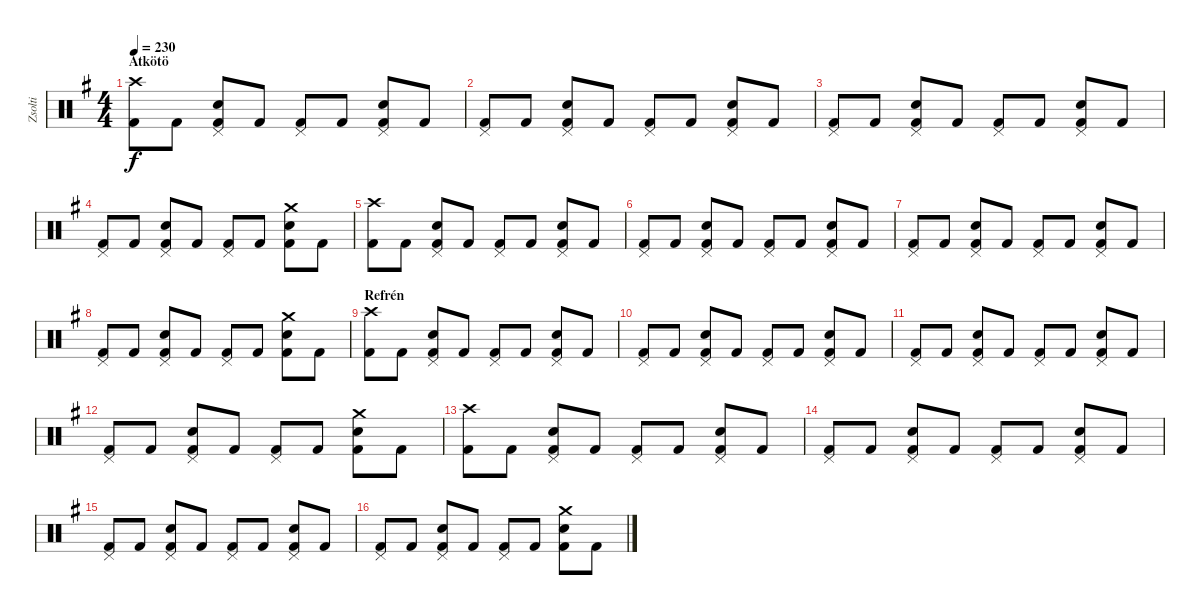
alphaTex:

\track ("Zsolti" "Zsolti") {instrument percussion}
\staff {score}
\articulation defaults
\ts (4 4)
\section ("" "Átkötö")
\tempo 230
\clef neutral
\ks eminor
("Crash high (hit)" "Kick (hit) 2").8{dy f} "Kick (hit) 2".8 ("Pedal Hi-Hat (hit)" "Snare (hit) 2" "Kick (hit) 2").8 "Kick (hit) 2".8 ("Pedal Hi-Hat (hit)" "Kick (hit) 2").8 "Kick (hit) 2".8 ("Pedal Hi-Hat (hit)" "Snare (hit) 2" "Kick (hit) 2").8 "Kick (hit) 2".8 |
("Pedal Hi-Hat (hit)" "Kick (hit) 2").8 "Kick (hit) 2".8 ("Pedal Hi-Hat (hit)" "Snare (hit) 2" "Kick (hit) 2").8 "Kick (hit) 2".8 ("Pedal Hi-Hat (hit)" "Kick (hit) 2").8 "Kick (hit) 2".8 ("Pedal Hi-Hat (hit)" "Snare (hit) 2" "Kick (hit) 2").8 "Kick (hit) 2".8 |
("Pedal Hi-Hat (hit)" "Kick (hit) 2").8 "Kick (hit) 2".8 ("Pedal Hi-Hat (hit)" "Snare (hit) 2" "Kick (hit) 2").8 "Kick (hit) 2".8 ("Pedal Hi-Hat (hit)" "Kick (hit) 2").8 "Kick (hit) 2".8 ("Pedal Hi-Hat (hit)" "Snare (hit) 2" "Kick (hit) 2").8 "Kick (hit) 2".8 |
("Pedal Hi-Hat (hit)" "Kick (hit) 2").8 "Kick (hit) 2".8 ("Pedal Hi-Hat (hit)" "Snare (hit) 2" "Kick (hit) 2").8 "Kick (hit) 2".8 ("Pedal Hi-Hat (hit)" "Kick (hit) 2").8 "Kick (hit) 2".8 ("Crash medium (hit)" "Snare (hit) 2" "Kick (hit) 2").8 "Kick (hit) 2".8 |
("Crash high (hit)" "Kick (hit) 2").8 "Kick (hit) 2".8 ("Pedal Hi-Hat (hit)" "Snare (hit) 2" "Kick (hit) 2").8 "Kick (hit) 2".8 ("Pedal Hi-Hat (hit)" "Kick (hit) 2").8 "Kick (hit) 2".8 ("Pedal Hi-Hat (hit)" "Snare (hit) 2" "Kick (hit) 2").8 "Kick (hit) 2".8 |
("Pedal Hi-Hat (hit)" "Kick (hit) 2").8 "Kick (hit) 2".8 ("Pedal Hi-Hat (hit)" "Snare (hit) 2" "Kick (hit) 2").8 "Kick (hit) 2".8 ("Pedal Hi-Hat (hit)" "Kick (hit) 2").8 "Kick (hit) 2".8 ("Pedal Hi-Hat (hit)" "Snare (hit) 2" "Kick (hit) 2").8 "Kick (hit) 2".8 |
("Pedal Hi-Hat (hit)" "Kick (hit) 2").8 "Kick (hit) 2".8 ("Pedal Hi-Hat (hit)" "Snare (hit) 2" "Kick (hit) 2").8 "Kick (hit) 2".8 ("Pedal Hi-Hat (hit)" "Kick (hit) 2").8 "Kick (hit) 2".8 ("Pedal Hi-Hat (hit)" "Snare (hit) 2" "Kick (hit) 2").8 "Kick (hit) 2".8 |
("Pedal Hi-Hat (hit)" "Kick (hit) 2").8 "Kick (hit) 2".8 ("Pedal Hi-Hat (hit)" "Snare (hit) 2" "Kick (hit) 2").8 "Kick (hit) 2".8 ("Pedal Hi-Hat (hit)" "Kick (hit) 2").8 "Kick (hit) 2".8 ("Crash medium (hit)" "Snare (hit) 2" "Kick (hit) 2").8 "Kick (hit) 2".8 |
\section ("" "Refrén")
("Crash high (hit)" "Kick (hit) 2").8 "Kick (hit) 2".8 ("Pedal Hi-Hat (hit)" "Snare (hit) 2" "Kick (hit) 2").8 "Kick (hit) 2".8 ("Pedal Hi-Hat (hit)" "Kick (hit) 2").8 "Kick (hit) 2".8 ("Pedal Hi-Hat (hit)" "Snare (hit) 2" "Kick (hit) 2").8 "Kick (hit) 2".8 |
("Pedal Hi-Hat (hit)" "Kick (hit) 2").8 "Kick (hit) 2".8 ("Pedal Hi-Hat (hit)" "Snare (hit) 2" "Kick (hit) 2").8 "Kick (hit) 2".8 ("Pedal Hi-Hat (hit)" "Kick (hit) 2").8 "Kick (hit) 2".8 ("Pedal Hi-Hat (hit)" "Snare (hit) 2" "Kick (hit) 2").8 "Kick (hit) 2".8 |
("Pedal Hi-Hat (hit)" "Kick (hit) 2").8 "Kick (hit) 2".8 ("Pedal Hi-Hat (hit)" "Snare (hit) 2" "Kick (hit) 2").8 "Kick (hit) 2".8 ("Pedal Hi-Hat (hit)" "Kick (hit) 2").8 "Kick (hit) 2".8 ("Pedal Hi-Hat (hit)" "Snare (hit) 2" "Kick (hit) 2").8 "Kick (hit) 2".8 |
("Pedal Hi-Hat (hit)" "Kick (hit) 2").8 "Kick (hit) 2".8 ("Pedal Hi-Hat (hit)" "Snare (hit) 2" "Kick (hit) 2").8 "Kick (hit) 2".8 ("Pedal Hi-Hat (hit)" "Kick (hit) 2").8 "Kick (hit) 2".8 ("Crash medium (hit)" "Snare (hit) 2" "Kick (hit) 2").8 "Kick (hit) 2".8 |
("Crash high (hit)" "Kick (hit) 2").8 "Kick (hit) 2".8 ("Pedal Hi-Hat (hit)" "Snare (hit) 2" "Kick (hit) 2").8 "Kick (hit) 2".8 ("Pedal Hi-Hat (hit)" "Kick (hit) 2").8 "Kick (hit) 2".8 ("Pedal Hi-Hat (hit)" "Snare (hit) 2" "Kick (hit) 2").8 "Kick (hit) 2".8 |
("Pedal Hi-Hat (hit)" "Kick (hit) 2").8 "Kick (hit) 2".8 ("Pedal Hi-Hat (hit)" "Snare (hit) 2" "Kick (hit) 2").8 "Kick (hit) 2".8 ("Pedal Hi-Hat (hit)" "Kick (hit) 2").8 "Kick (hit) 2".8 ("Pedal Hi-Hat (hit)" "Snare (hit) 2" "Kick (hit) 2").8 "Kick (hit) 2".8 |
("Pedal Hi-Hat (hit)" "Kick (hit) 2").8 "Kick (hit) 2".8 ("Pedal Hi-Hat (hit)" "Snare (hit) 2" "Kick (hit) 2").8 "Kick (hit) 2".8 ("Pedal Hi-Hat (hit)" "Kick (hit) 2").8 "Kick (hit) 2".8 ("Pedal Hi-Hat (hit)" "Snare (hit) 2" "Kick (hit) 2").8 "Kick (hit) 2".8 |
("Pedal Hi-Hat (hit)" "Kick (hit) 2").8 "Kick (hit) 2".8 ("Pedal Hi-Hat (hit)" "Snare (hit) 2" "Kick (hit) 2").8 "Kick (hit) 2".8 ("Pedal Hi-Hat (hit)" "Kick (hit) 2").8 "Kick (hit) 2".8 ("Crash medium (hit)" "Snare (hit) 2" "Kick (hit) 2").8 "Kick (hit) 2".8
